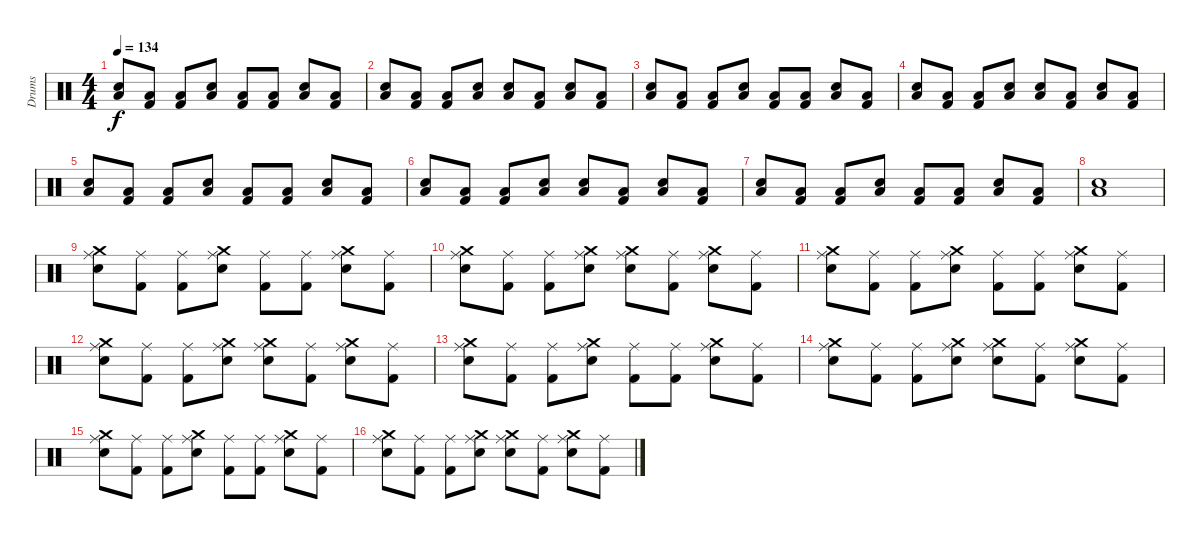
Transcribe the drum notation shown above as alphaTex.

\track ("Drums" "Drums") {instrument percussion}
\staff {score}
\articulation defaults
\ts (4 4)
\tempo 134
\clef neutral
\ks c
("Low Tom (hit)" "Snare (hit) 2").8{dy f} ("Low Tom (hit)" "Kick (hit) 2").8 ("Low Tom (hit)" "Kick (hit) 2").8 ("Low Tom (hit)" "Snare (hit) 2").8 ("Low Tom (hit)" "Kick (hit) 2").8 ("Low Tom (hit)" "Kick (hit) 2").8 ("Low Tom (hit)" "Snare (hit) 2").8 ("Low Tom (hit)" "Kick (hit) 2").8 |
("Low Tom (hit)" "Snare (hit) 2").8 ("Low Tom (hit)" "Kick (hit) 2").8 ("Low Tom (hit)" "Kick (hit) 2").8 ("Low Tom (hit)" "Snare (hit) 2").8 ("Low Tom (hit)" "Snare (hit) 2").8 ("Low Tom (hit)" "Kick (hit) 2").8 ("Low Tom (hit)" "Snare (hit) 2").8 ("Low Tom (hit)" "Kick (hit) 2").8 |
("Low Tom (hit)" "Snare (hit) 2").8 ("Low Tom (hit)" "Kick (hit) 2").8 ("Low Tom (hit)" "Kick (hit) 2").8 ("Low Tom (hit)" "Snare (hit) 2").8 ("Low Tom (hit)" "Kick (hit) 2").8 ("Low Tom (hit)" "Kick (hit) 2").8 ("Low Tom (hit)" "Snare (hit) 2").8 ("Low Tom (hit)" "Kick (hit) 2").8 |
("Low Tom (hit)" "Snare (hit) 2").8 ("Low Tom (hit)" "Kick (hit) 2").8 ("Low Tom (hit)" "Kick (hit) 2").8 ("Low Tom (hit)" "Snare (hit) 2").8 ("Low Tom (hit)" "Snare (hit) 2").8 ("Low Tom (hit)" "Kick (hit) 2").8 ("Low Tom (hit)" "Snare (hit) 2").8 ("Low Tom (hit)" "Kick (hit) 2").8 |
("Low Tom (hit)" "Snare (hit) 2").8 ("Low Tom (hit)" "Kick (hit) 2").8 ("Low Tom (hit)" "Kick (hit) 2").8 ("Low Tom (hit)" "Snare (hit) 2").8 ("Low Tom (hit)" "Kick (hit) 2").8 ("Low Tom (hit)" "Kick (hit) 2").8 ("Low Tom (hit)" "Snare (hit) 2").8 ("Low Tom (hit)" "Kick (hit) 2").8 |
("Low Tom (hit)" "Snare (hit) 2").8 ("Low Tom (hit)" "Kick (hit) 2").8 ("Low Tom (hit)" "Kick (hit) 2").8 ("Low Tom (hit)" "Snare (hit) 2").8 ("Low Tom (hit)" "Snare (hit) 2").8 ("Low Tom (hit)" "Kick (hit) 2").8 ("Low Tom (hit)" "Snare (hit) 2").8 ("Low Tom (hit)" "Kick (hit) 2").8 |
("Low Tom (hit)" "Snare (hit) 2").8 ("Low Tom (hit)" "Kick (hit) 2").8 ("Low Tom (hit)" "Kick (hit) 2").8 ("Low Tom (hit)" "Snare (hit) 2").8 ("Low Tom (hit)" "Kick (hit) 2").8 ("Low Tom (hit)" "Kick (hit) 2").8 ("Low Tom (hit)" "Snare (hit) 2").8 ("Low Tom (hit)" "Kick (hit) 2").8 |
("Low Tom (hit)" "Snare (hit) 2").1 |
("Ride (middle)" "Crash medium (hit)" "Snare (hit) 2").8{volume 13} ("Ride (middle)" "Kick (hit) 2").8 ("Ride (middle)" "Kick (hit) 2").8 ("Ride (middle)" "Crash medium (hit)" "Snare (hit) 2").8 ("Ride (middle)" "Kick (hit) 2").8 ("Ride (middle)" "Kick (hit) 2").8 ("Ride (middle)" "Crash medium (hit)" "Snare (hit) 2").8 ("Ride (middle)" "Kick (hit) 2").8 |
("Ride (middle)" "Crash medium (hit)" "Snare (hit) 2").8 ("Ride (middle)" "Kick (hit) 2").8 ("Ride (middle)" "Kick (hit) 2").8 ("Ride (middle)" "Crash medium (hit)" "Snare (hit) 2").8 ("Ride (middle)" "Crash medium (hit)" "Snare (hit) 2").8 ("Ride (middle)" "Kick (hit) 2").8 ("Ride (middle)" "Crash medium (hit)" "Snare (hit) 2").8 ("Ride (middle)" "Kick (hit) 2").8 |
("Ride (middle)" "Crash medium (hit)" "Snare (hit) 2").8 ("Ride (middle)" "Kick (hit) 2").8 ("Ride (middle)" "Kick (hit) 2").8 ("Ride (middle)" "Crash medium (hit)" "Snare (hit) 2").8 ("Ride (middle)" "Kick (hit) 2").8 ("Ride (middle)" "Kick (hit) 2").8 ("Ride (middle)" "Crash medium (hit)" "Snare (hit) 2").8 ("Ride (middle)" "Kick (hit) 2").8 |
("Ride (middle)" "Crash medium (hit)" "Snare (hit) 2").8 ("Ride (middle)" "Kick (hit) 2").8 ("Ride (middle)" "Kick (hit) 2").8 ("Ride (middle)" "Crash medium (hit)" "Snare (hit) 2").8 ("Ride (middle)" "Crash medium (hit)" "Snare (hit) 2").8 ("Ride (middle)" "Kick (hit) 2").8 ("Ride (middle)" "Crash medium (hit)" "Snare (hit) 2").8 ("Ride (middle)" "Kick (hit) 2").8 |
("Ride (middle)" "Crash medium (hit)" "Snare (hit) 2").8 ("Ride (middle)" "Kick (hit) 2").8 ("Ride (middle)" "Kick (hit) 2").8 ("Ride (middle)" "Crash medium (hit)" "Snare (hit) 2").8 ("Ride (middle)" "Kick (hit) 2").8 ("Ride (middle)" "Kick (hit) 2").8 ("Ride (middle)" "Crash medium (hit)" "Snare (hit) 2").8 ("Ride (middle)" "Kick (hit) 2").8 |
("Ride (middle)" "Crash medium (hit)" "Snare (hit) 2").8 ("Ride (middle)" "Kick (hit) 2").8 ("Ride (middle)" "Kick (hit) 2").8 ("Ride (middle)" "Crash medium (hit)" "Snare (hit) 2").8 ("Ride (middle)" "Crash medium (hit)" "Snare (hit) 2").8 ("Ride (middle)" "Kick (hit) 2").8 ("Ride (middle)" "Crash medium (hit)" "Snare (hit) 2").8 ("Ride (middle)" "Kick (hit) 2").8 |
("Ride (middle)" "Crash medium (hit)" "Snare (hit) 2").8 ("Ride (middle)" "Kick (hit) 2").8 ("Ride (middle)" "Kick (hit) 2").8 ("Ride (middle)" "Crash medium (hit)" "Snare (hit) 2").8 ("Ride (middle)" "Kick (hit) 2").8 ("Ride (middle)" "Kick (hit) 2").8 ("Ride (middle)" "Crash medium (hit)" "Snare (hit) 2").8 ("Ride (middle)" "Kick (hit) 2").8 |
("Ride (middle)" "Crash medium (hit)" "Snare (hit) 2").8 ("Ride (middle)" "Kick (hit) 2").8 ("Ride (middle)" "Kick (hit) 2").8 ("Ride (middle)" "Crash medium (hit)" "Snare (hit) 2").8 ("Ride (middle)" "Crash medium (hit)" "Snare (hit) 2").8 ("Ride (middle)" "Kick (hit) 2").8 ("Ride (middle)" "Crash medium (hit)" "Snare (hit) 2").8 ("Ride (middle)" "Kick (hit) 2").8
